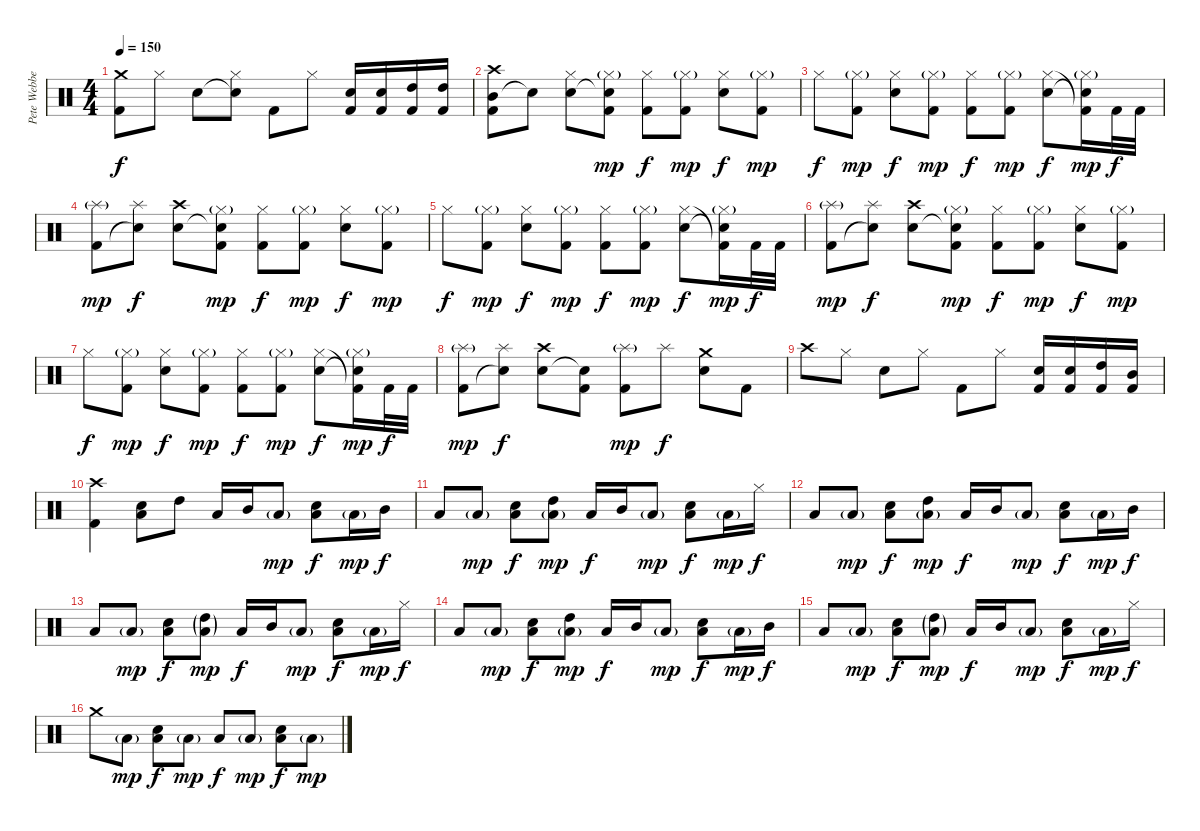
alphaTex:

\track ("Pete Webber" "Pete Webbe") {instrument percussion}
\staff {score}
\articulation defaults
\ts (4 4)
\tempo 150
\clef neutral
\ks c
("Kick (hit) 2" "Crash medium (hit)").8{dy f} "Hi-Hat (closed)".8 "Electric Snare (hit)".8 ("Snare (hit)"{t} "Hi-Hat (closed)").8 "Kick (hit) 2".8 "Hi-Hat (closed)".8 ("Electric Snare (hit)" "Kick (hit) 2").16 ("Electric Snare (hit)" "Kick (hit) 2").16 ("High Tom (hit)" "Kick (hit) 2").16 ("High Tom (hit)" "Kick (hit) 2").16 |
("Mid Tom (hit)" "Kick (hit) 2" "Crash high (hit)").8 "Snare (hit)"{t}.8 ("Electric Snare (hit)" "Hi-Hat (closed)").8 ("Snare (hit)"{t} "Kick (hit) 2" "Hi-Hat (closed)"{g}).8{dy mp} ("Kick (hit) 2" "Hi-Hat (closed)").8{dy f} ("Kick (hit) 2" "Hi-Hat (closed)"{g}).8{dy mp} ("Electric Snare (hit)" "Hi-Hat (closed)").8{dy f} ("Kick (hit) 2" "Hi-Hat (closed)"{g}).8{dy mp} |
"Hi-Hat (closed)".8{dy f} ("Kick (hit) 2" "Hi-Hat (closed)"{g}).8{dy mp} ("Electric Snare (hit)" "Hi-Hat (closed)").8{dy f} ("Kick (hit) 2" "Hi-Hat (closed)"{g}).8{dy mp} ("Kick (hit) 2" "Hi-Hat (closed)").8{dy f} ("Kick (hit) 2" "Hi-Hat (closed)"{g}).8{dy mp} ("Electric Snare (hit)" "Hi-Hat (closed)").8{dy f} ("Snare (hit)"{t} "Kick (hit) 2"{t} "Hi-Hat (closed)"{g}).16{dy mp} "Kick (hit) 2".32{dy f} "Kick (hit) 2".32 |
("Kick (hit) 2" "Splash (hit)"{g}).8{dy mp} ("Snare (hit)"{t} "Splash (hit)").8{dy f} ("Electric Snare (hit)" "Crash high (hit)").8 ("Snare (hit)"{t} "Kick (hit) 2" "Hi-Hat (closed)"{g}).8{dy mp} ("Kick (hit) 2" "Hi-Hat (closed)").8{dy f} ("Kick (hit) 2" "Hi-Hat (closed)"{g}).8{dy mp} ("Electric Snare (hit)" "Hi-Hat (closed)").8{dy f} ("Kick (hit) 2" "Hi-Hat (closed)"{g}).8{dy mp} |
"Hi-Hat (closed)".8{dy f} ("Kick (hit) 2" "Hi-Hat (closed)"{g}).8{dy mp} ("Electric Snare (hit)" "Hi-Hat (closed)").8{dy f} ("Kick (hit) 2" "Hi-Hat (closed)"{g}).8{dy mp} ("Kick (hit) 2" "Hi-Hat (closed)").8{dy f} ("Kick (hit) 2" "Hi-Hat (closed)"{g}).8{dy mp} ("Electric Snare (hit)" "Hi-Hat (closed)").8{dy f} ("Snare (hit)"{t} "Kick (hit) 2"{t} "Hi-Hat (closed)"{g}).16{dy mp} "Kick (hit) 2".32{dy f} "Kick (hit) 2".32 |
("Kick (hit) 2" "Splash (hit)"{g}).8{dy mp} ("Snare (hit)"{t} "Splash (hit)").8{dy f} ("Electric Snare (hit)" "Crash high (hit)").8 ("Snare (hit)"{t} "Kick (hit) 2" "Hi-Hat (closed)"{g}).8{dy mp} ("Kick (hit) 2" "Hi-Hat (closed)").8{dy f} ("Kick (hit) 2" "Hi-Hat (closed)"{g}).8{dy mp} ("Electric Snare (hit)" "Hi-Hat (closed)").8{dy f} ("Kick (hit) 2" "Hi-Hat (closed)"{g}).8{dy mp} |
"Hi-Hat (closed)".8{dy f} ("Kick (hit) 2" "Hi-Hat (closed)"{g}).8{dy mp} ("Electric Snare (hit)" "Hi-Hat (closed)").8{dy f} ("Kick (hit) 2" "Hi-Hat (closed)"{g}).8{dy mp} ("Kick (hit) 2" "Hi-Hat (closed)").8{dy f} ("Kick (hit) 2" "Hi-Hat (closed)"{g}).8{dy mp} ("Electric Snare (hit)" "Hi-Hat (closed)").8{dy f} ("Snare (hit)"{t} "Kick (hit) 2"{t} "Hi-Hat (closed)"{g}).16{dy mp} "Kick (hit) 2".32{dy f} "Kick (hit) 2".32 |
("Kick (hit) 2" "Splash (hit)"{g}).8{dy mp} ("Snare (hit)"{t} "Splash (hit)").8{dy f} ("Electric Snare (hit)" "Crash high (hit)").8 ("Snare (hit)"{t} "Kick (hit) 2").8 ("Kick (hit) 2" "Splash (hit)"{g}).8{dy mp} "Splash (hit)".8{dy f} ("Electric Snare (hit)" "Crash medium (hit)").8 "Kick (hit) 2".8 |
"Crash high (hit)".8 "Hi-Hat (closed)".8 "Electric Snare (hit)".8 "Hi-Hat (closed)".8 "Kick (hit) 2".8 "Hi-Hat (closed)".8 ("Electric Snare (hit)" "Kick (hit) 2").16 ("Electric Snare (hit)" "Kick (hit) 2").16 ("High Tom (hit)" "Kick (hit) 2").16 ("Mid Tom (hit)" "Kick (hit) 2").16 |
("Kick (hit) 2" "Crash high (hit)").4 ("Electric Snare (hit)" "Low Floor Tom (hit)").8 "High Tom (hit)".8 "Low Floor Tom (hit)".16 "Mid Tom (hit)".16 "Low Floor Tom (hit)"{g}.8{dy mp} ("Electric Snare (hit)" "Low Floor Tom (hit)").8{dy f} "Low Floor Tom (hit)"{g}.16{dy mp} "Mid Tom (hit)".16{dy f} |
"Low Floor Tom (hit)".8 "Low Floor Tom (hit)"{g}.8{dy mp} ("Electric Snare (hit)" "Low Floor Tom (hit)").8{dy f} ("High Tom (hit)" "Low Floor Tom (hit)"{g}).8{dy mp} "Low Floor Tom (hit)".16{dy f} "Mid Tom (hit)".16 "Low Floor Tom (hit)"{g}.8{dy mp} ("Electric Snare (hit)" "Low Floor Tom (hit)").8{dy f} "Low Floor Tom (hit)"{g}.16{dy mp} "Hi-Hat (closed)".16{dy f} |
"Low Floor Tom (hit)".8 "Low Floor Tom (hit)"{g}.8{dy mp} ("Electric Snare (hit)" "Low Floor Tom (hit)").8{dy f} ("High Tom (hit)" "Low Floor Tom (hit)"{g}).8{dy mp} "Low Floor Tom (hit)".16{dy f} "Mid Tom (hit)".16 "Low Floor Tom (hit)"{g}.8{dy mp} ("Electric Snare (hit)" "Low Floor Tom (hit)").8{dy f} "Low Floor Tom (hit)"{g}.16{dy mp} "Mid Tom (hit)".16{dy f} |
"Low Floor Tom (hit)".8 "Low Floor Tom (hit)"{g}.8{dy mp} ("Electric Snare (hit)" "Low Floor Tom (hit)").8{dy f} ("High Tom (hit)"{g} "Low Floor Tom (hit)"{g}).8{dy mp} "Low Floor Tom (hit)".16{dy f} "Mid Tom (hit)".16 "Low Floor Tom (hit)"{g}.8{dy mp} ("Electric Snare (hit)" "Low Floor Tom (hit)").8{dy f} "Low Floor Tom (hit)"{g}.16{dy mp} "Hi-Hat (closed)".16{dy f} |
"Low Floor Tom (hit)".8 "Low Floor Tom (hit)"{g}.8{dy mp} ("Electric Snare (hit)" "Low Floor Tom (hit)").8{dy f} ("High Tom (hit)" "Low Floor Tom (hit)"{g}).8{dy mp} "Low Floor Tom (hit)".16{dy f} "Mid Tom (hit)".16 "Low Floor Tom (hit)"{g}.8{dy mp} ("Electric Snare (hit)" "Low Floor Tom (hit)").8{dy f} "Low Floor Tom (hit)"{g}.16{dy mp} "Mid Tom (hit)".16{dy f} |
"Low Floor Tom (hit)".8 "Low Floor Tom (hit)"{g}.8{dy mp} ("Electric Snare (hit)" "Low Floor Tom (hit)").8{dy f} ("High Tom (hit)"{g} "Low Floor Tom (hit)"{g}).8{dy mp} "Low Floor Tom (hit)".16{dy f} "Mid Tom (hit)".16 "Low Floor Tom (hit)"{g}.8{dy mp} ("Electric Snare (hit)" "Low Floor Tom (hit)").8{dy f} "Low Floor Tom (hit)"{g}.16{dy mp} "Hi-Hat (closed)".16{dy f} |
"Crash medium (hit)".8 "Low Floor Tom (hit)"{g}.8{dy mp} ("Electric Snare (hit)" "Low Floor Tom (hit)").8{dy f} "Low Floor Tom (hit)"{g}.8{dy mp} "Low Floor Tom (hit)".8{dy f} "Low Floor Tom (hit)"{g}.8{dy mp} ("Electric Snare (hit)" "Low Floor Tom (hit)").8{dy f} "Low Floor Tom (hit)"{g}.8{dy mp}
